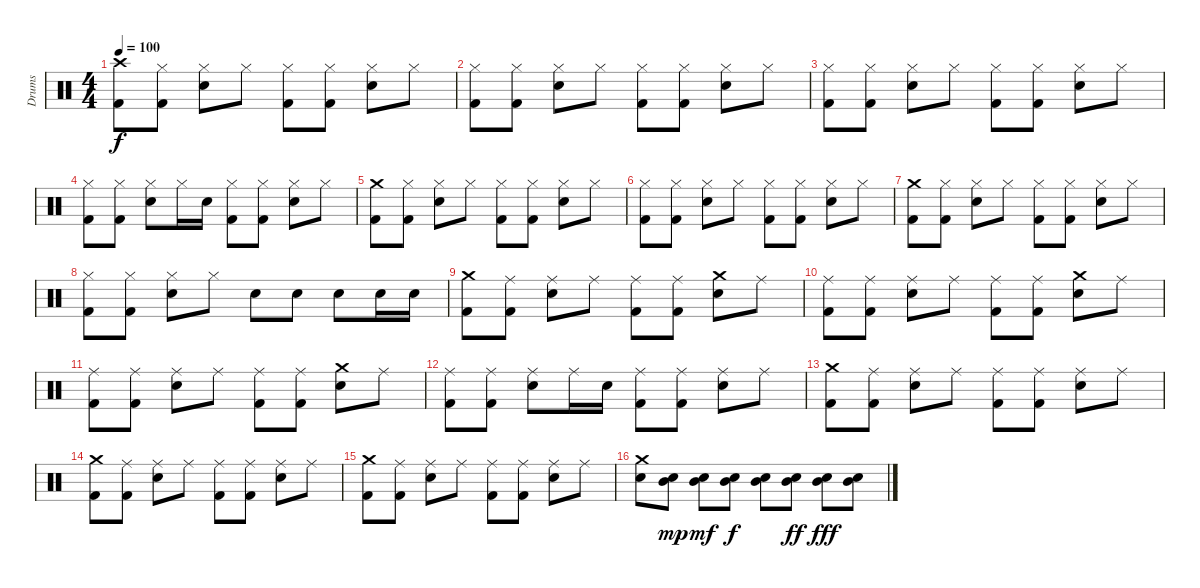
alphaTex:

\track ("Drums" "Drums") {instrument percussion}
\staff {score}
\articulation defaults
\ts (4 4)
\tempo 100
\clef neutral
\ks c
("Crash high (hit)" "Kick (hit) 2").8{dy f} ("Hi-Hat (closed)" "Kick (hit) 2").8 ("Hi-Hat (closed)" "Electric Snare (hit)").8 "Hi-Hat (closed)".8 ("Hi-Hat (closed)" "Kick (hit) 2").8 ("Hi-Hat (closed)" "Kick (hit) 2").8 ("Hi-Hat (closed)" "Electric Snare (hit)").8 "Hi-Hat (closed)".8 |
("Hi-Hat (closed)" "Kick (hit) 2").8 ("Hi-Hat (closed)" "Kick (hit) 2").8 ("Hi-Hat (closed)" "Electric Snare (hit)").8 "Hi-Hat (closed)".8 ("Hi-Hat (closed)" "Kick (hit) 2").8 ("Hi-Hat (closed)" "Kick (hit) 2").8 ("Hi-Hat (closed)" "Electric Snare (hit)").8 "Hi-Hat (closed)".8 |
("Hi-Hat (closed)" "Kick (hit) 2").8 ("Hi-Hat (closed)" "Kick (hit) 2").8 ("Hi-Hat (closed)" "Electric Snare (hit)").8 "Hi-Hat (closed)".8 ("Hi-Hat (closed)" "Kick (hit) 2").8 ("Hi-Hat (closed)" "Kick (hit) 2").8 ("Hi-Hat (closed)" "Electric Snare (hit)").8 "Hi-Hat (closed)".8 |
("Hi-Hat (closed)" "Kick (hit) 2").8 ("Hi-Hat (closed)" "Kick (hit) 2").8 ("Hi-Hat (closed)" "Electric Snare (hit)").8 "Hi-Hat (closed)".16 "Electric Snare (hit)".16 ("Hi-Hat (closed)" "Kick (hit) 2").8 ("Hi-Hat (closed)" "Kick (hit) 2").8 ("Hi-Hat (closed)" "Electric Snare (hit)").8 "Hi-Hat (closed)".8 |
("Crash medium (hit)" "Kick (hit) 2").8 ("Hi-Hat (closed)" "Kick (hit) 2").8 ("Hi-Hat (closed)" "Electric Snare (hit)").8 "Hi-Hat (closed)".8 ("Hi-Hat (closed)" "Kick (hit) 2").8 ("Hi-Hat (closed)" "Kick (hit) 2").8 ("Hi-Hat (closed)" "Electric Snare (hit)").8 "Hi-Hat (closed)".8 |
("Hi-Hat (closed)" "Kick (hit) 2").8 ("Hi-Hat (closed)" "Kick (hit) 2").8 ("Hi-Hat (closed)" "Electric Snare (hit)").8 "Hi-Hat (closed)".8 ("Hi-Hat (closed)" "Kick (hit) 2").8 ("Hi-Hat (closed)" "Kick (hit) 2").8 ("Hi-Hat (closed)" "Electric Snare (hit)").8 "Hi-Hat (closed)".8 |
("Crash medium (hit)" "Kick (hit) 2").8 ("Hi-Hat (closed)" "Kick (hit) 2").8 ("Hi-Hat (closed)" "Electric Snare (hit)").8 "Hi-Hat (closed)".8 ("Hi-Hat (closed)" "Kick (hit) 2").8 ("Hi-Hat (closed)" "Kick (hit) 2").8 ("Hi-Hat (closed)" "Electric Snare (hit)").8 "Hi-Hat (closed)".8 |
("Hi-Hat (closed)" "Kick (hit) 2").8 ("Hi-Hat (closed)" "Kick (hit) 2").8 ("Hi-Hat (closed)" "Electric Snare (hit)").8 "Hi-Hat (closed)".8 "Electric Snare (hit)".8 "Electric Snare (hit)".8 "Electric Snare (hit)".8 "Electric Snare (hit)".16 "Electric Snare (hit)".16 |
("Crash medium (hit)" "Kick (hit) 2").8 ("Ride (middle)" "Kick (hit) 2").8 ("Ride (middle)" "Electric Snare (hit)").8 "Ride (middle)".8 ("Ride (middle)" "Kick (hit) 2").8 ("Ride (middle)" "Kick (hit) 2").8 ("Crash medium (hit)" "Electric Snare (hit)").8 "Ride (middle)".8 |
("Ride (middle)" "Kick (hit) 2").8 ("Ride (middle)" "Kick (hit) 2").8 ("Ride (middle)" "Electric Snare (hit)").8 "Ride (middle)".8 ("Ride (middle)" "Kick (hit) 2").8 ("Ride (middle)" "Kick (hit) 2").8 ("Crash medium (hit)" "Electric Snare (hit)").8 "Ride (middle)".8 |
("Ride (middle)" "Kick (hit) 2").8 ("Ride (middle)" "Kick (hit) 2").8 ("Ride (middle)" "Electric Snare (hit)").8 "Ride (middle)".8 ("Ride (middle)" "Kick (hit) 2").8 ("Ride (middle)" "Kick (hit) 2").8 ("Crash medium (hit)" "Electric Snare (hit)").8 "Ride (middle)".8 |
("Ride (middle)" "Kick (hit) 2").8 ("Ride (middle)" "Kick (hit) 2").8 ("Ride (middle)" "Electric Snare (hit)").8 "Ride (middle)".16 "Electric Snare (hit)".16 ("Ride (middle)" "Kick (hit) 2").8 ("Ride (middle)" "Kick (hit) 2").8 ("Ride (middle)" "Electric Snare (hit)").8 "Ride (middle)".8 |
("Crash medium (hit)" "Kick (hit) 2").8 ("Ride (middle)" "Kick (hit) 2").8 ("Ride (middle)" "Electric Snare (hit)").8 "Ride (middle)".8 ("Ride (middle)" "Kick (hit) 2").8 ("Ride (middle)" "Kick (hit) 2").8 ("Ride (middle)" "Electric Snare (hit)").8 "Ride (middle)".8 |
("Crash medium (hit)" "Kick (hit) 2").8 ("Ride (middle)" "Kick (hit) 2").8 ("Ride (middle)" "Electric Snare (hit)").8 "Ride (middle)".8 ("Ride (middle)" "Kick (hit) 2").8 ("Ride (middle)" "Kick (hit) 2").8 ("Ride (middle)" "Electric Snare (hit)").8 "Ride (middle)".8 |
("Crash medium (hit)" "Kick (hit) 2").8 ("Ride (middle)" "Kick (hit) 2").8 ("Ride (middle)" "Electric Snare (hit)").8 "Ride (middle)".8 ("Ride (middle)" "Kick (hit) 2").8 ("Ride (middle)" "Kick (hit) 2").8 ("Ride (middle)" "Electric Snare (hit)").8 "Ride (middle)".8 |
("Crash medium (hit)" "Electric Snare (hit)").8 ("Electric Snare (hit)" "Mid Tom (hit)").8{dy mp} ("Electric Snare (hit)" "Mid Tom (hit)").8{dy mf} ("Electric Snare (hit)" "Mid Tom (hit)").8{dy f} ("Electric Snare (hit)" "Mid Tom (hit)").8 ("Electric Snare (hit)" "Mid Tom (hit)").8{dy ff} ("Electric Snare (hit)" "Mid Tom (hit)").8{dy fff} ("Electric Snare (hit)" "Mid Tom (hit)").8
